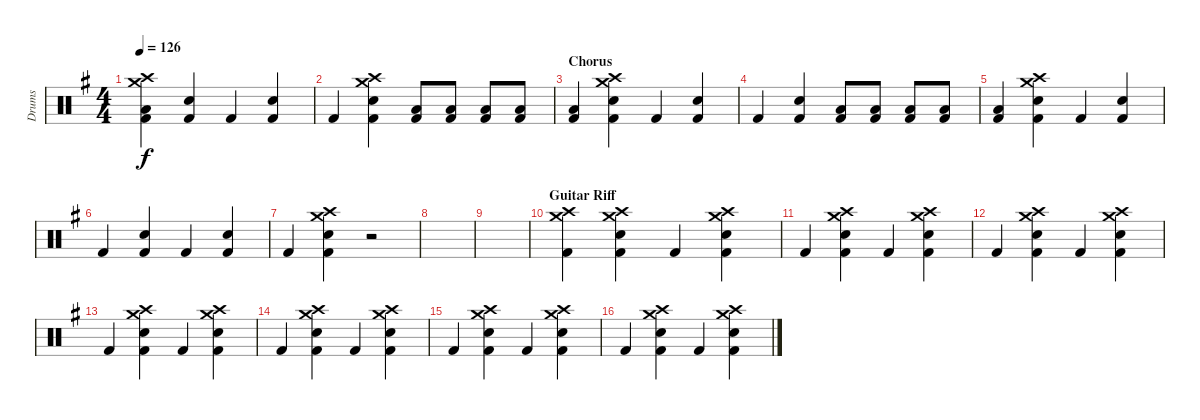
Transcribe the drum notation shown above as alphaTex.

\track ("Drums" "Drums") {instrument percussion}
\staff {score}
\articulation defaults
\ts (4 4)
\tempo 126
\clef neutral
\ks g
("Crash medium (hit)" "Crash high (hit)" "Low Floor Tom (hit)" "Kick (hit) 2").4{dy f} ("Snare (hit) 2" "Kick (hit) 2").4 "Kick (hit) 2".4 ("Snare (hit) 2" "Kick (hit) 2").4 |
"Kick (hit) 2".4 ("Crash medium (hit)" "Crash high (hit)" "Snare (hit) 2" "Kick (hit) 2").4 ("Low Floor Tom (hit)" "Kick (hit) 2").8 ("Low Floor Tom (hit)" "Kick (hit) 2").8 ("Low Floor Tom (hit)" "Kick (hit) 2").8 ("Low Floor Tom (hit)" "Kick (hit) 2").8 |
\section ("" "Chorus")
("Low Floor Tom (hit)" "Kick (hit) 2").4 ("Crash medium (hit)" "Crash high (hit)" "Snare (hit) 2" "Kick (hit) 2").4 "Kick (hit) 2".4 ("Snare (hit) 2" "Kick (hit) 2").4 |
"Kick (hit) 2".4 ("Snare (hit) 2" "Kick (hit) 2").4 ("Low Floor Tom (hit)" "Kick (hit) 2").8 ("Low Floor Tom (hit)" "Kick (hit) 2").8 ("Low Floor Tom (hit)" "Kick (hit) 2").8 ("Low Floor Tom (hit)" "Kick (hit) 2").8 |
("Low Floor Tom (hit)" "Kick (hit) 2").4 ("Crash medium (hit)" "Crash high (hit)" "Snare (hit) 2" "Kick (hit) 2").4 "Kick (hit) 2".4 ("Snare (hit) 2" "Kick (hit) 2").4 |
"Kick (hit) 2".4 ("Snare (hit) 2" "Kick (hit) 2").4 "Kick (hit) 2".4 ("Snare (hit) 2" "Kick (hit) 2").4 |
"Kick (hit) 2".4 ("Crash medium (hit)" "Crash high (hit)" "Snare (hit) 2" "Kick (hit) 2").4 r.2 |
|
|
\section ("" "Guitar Riff")
("Crash medium (hit)" "Crash high (hit)" "Kick (hit) 2").4 ("Crash medium (hit)" "Crash high (hit)" "Snare (hit) 2" "Kick (hit) 2").4 "Kick (hit) 2".4 ("Crash medium (hit)" "Crash high (hit)" "Snare (hit) 2" "Kick (hit) 2").4 |
"Kick (hit) 2".4 ("Crash medium (hit)" "Crash high (hit)" "Snare (hit) 2" "Kick (hit) 2").4 "Kick (hit) 2".4 ("Crash medium (hit)" "Crash high (hit)" "Snare (hit) 2" "Kick (hit) 2").4 |
"Kick (hit) 2".4 ("Crash medium (hit)" "Crash high (hit)" "Snare (hit) 2" "Kick (hit) 2").4 "Kick (hit) 2".4 ("Crash medium (hit)" "Crash high (hit)" "Snare (hit) 2" "Kick (hit) 2").4 |
"Kick (hit) 2".4 ("Crash medium (hit)" "Crash high (hit)" "Snare (hit) 2" "Kick (hit) 2").4 "Kick (hit) 2".4 ("Crash medium (hit)" "Crash high (hit)" "Snare (hit) 2" "Kick (hit) 2").4 |
"Kick (hit) 2".4 ("Crash medium (hit)" "Crash high (hit)" "Snare (hit) 2" "Kick (hit) 2").4 "Kick (hit) 2".4 ("Crash medium (hit)" "Crash high (hit)" "Snare (hit) 2" "Kick (hit) 2").4 |
"Kick (hit) 2".4 ("Crash medium (hit)" "Crash high (hit)" "Snare (hit) 2" "Kick (hit) 2").4 "Kick (hit) 2".4 ("Crash medium (hit)" "Crash high (hit)" "Snare (hit) 2" "Kick (hit) 2").4 |
"Kick (hit) 2".4 ("Crash medium (hit)" "Crash high (hit)" "Snare (hit) 2" "Kick (hit) 2").4 "Kick (hit) 2".4 ("Crash medium (hit)" "Crash high (hit)" "Snare (hit) 2" "Kick (hit) 2").4
